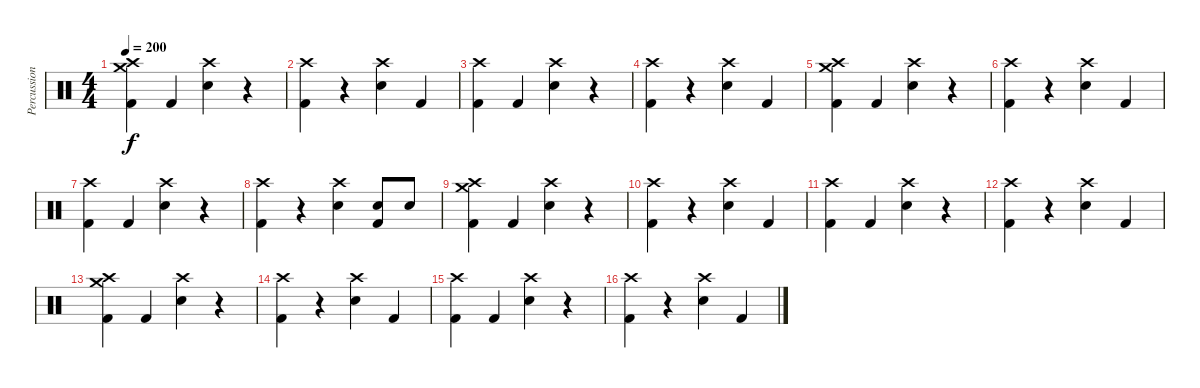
\track ("Percussion" "Percussion") {instrument percussion}
\staff {score}
\articulation defaults
\ts (4 4)
\tempo 200
\clef neutral
\ks c
("Crash high (hit)" "Crash medium (hit)" "Kick (hit) 2").4{dy f} "Kick (hit) 2".4 ("Crash high (hit)" "Electric Snare (hit)").4 r.4 |
("Crash high (hit)" "Kick (hit) 2").4 r.4 ("Crash high (hit)" "Electric Snare (hit)").4 "Kick (hit) 2".4 |
("Crash high (hit)" "Kick (hit) 2").4 "Kick (hit) 2".4 ("Crash high (hit)" "Electric Snare (hit)").4 r.4 |
("Crash high (hit)" "Kick (hit) 2").4 r.4 ("Crash high (hit)" "Electric Snare (hit)").4 "Kick (hit) 2".4 |
("Crash high (hit)" "Crash medium (hit)" "Kick (hit) 2").4 "Kick (hit) 2".4 ("Crash high (hit)" "Electric Snare (hit)").4 r.4 |
("Crash high (hit)" "Kick (hit) 2").4 r.4 ("Crash high (hit)" "Electric Snare (hit)").4 "Kick (hit) 2".4 |
("Crash high (hit)" "Kick (hit) 2").4 "Kick (hit) 2".4 ("Crash high (hit)" "Electric Snare (hit)").4 r.4 |
("Crash high (hit)" "Kick (hit) 2").4 r.4 ("Crash high (hit)" "Electric Snare (hit)").4 ("Electric Snare (hit)" "Kick (hit) 2").8 "Electric Snare (hit)".8 |
("Crash high (hit)" "Crash medium (hit)" "Kick (hit) 2").4 "Kick (hit) 2".4 ("Crash high (hit)" "Electric Snare (hit)").4 r.4 |
("Crash high (hit)" "Kick (hit) 2").4 r.4 ("Crash high (hit)" "Electric Snare (hit)").4 "Kick (hit) 2".4 |
("Crash high (hit)" "Kick (hit) 2").4 "Kick (hit) 2".4 ("Crash high (hit)" "Electric Snare (hit)").4 r.4 |
("Crash high (hit)" "Kick (hit) 2").4 r.4 ("Crash high (hit)" "Electric Snare (hit)").4 "Kick (hit) 2".4 |
("Crash high (hit)" "Crash medium (hit)" "Kick (hit) 2").4 "Kick (hit) 2".4 ("Crash high (hit)" "Electric Snare (hit)").4 r.4 |
("Crash high (hit)" "Kick (hit) 2").4 r.4 ("Crash high (hit)" "Electric Snare (hit)").4 "Kick (hit) 2".4 |
("Crash high (hit)" "Kick (hit) 2").4 "Kick (hit) 2".4 ("Crash high (hit)" "Electric Snare (hit)").4 r.4 |
("Crash high (hit)" "Kick (hit) 2").4 r.4 ("Crash high (hit)" "Electric Snare (hit)").4 "Kick (hit) 2".4
